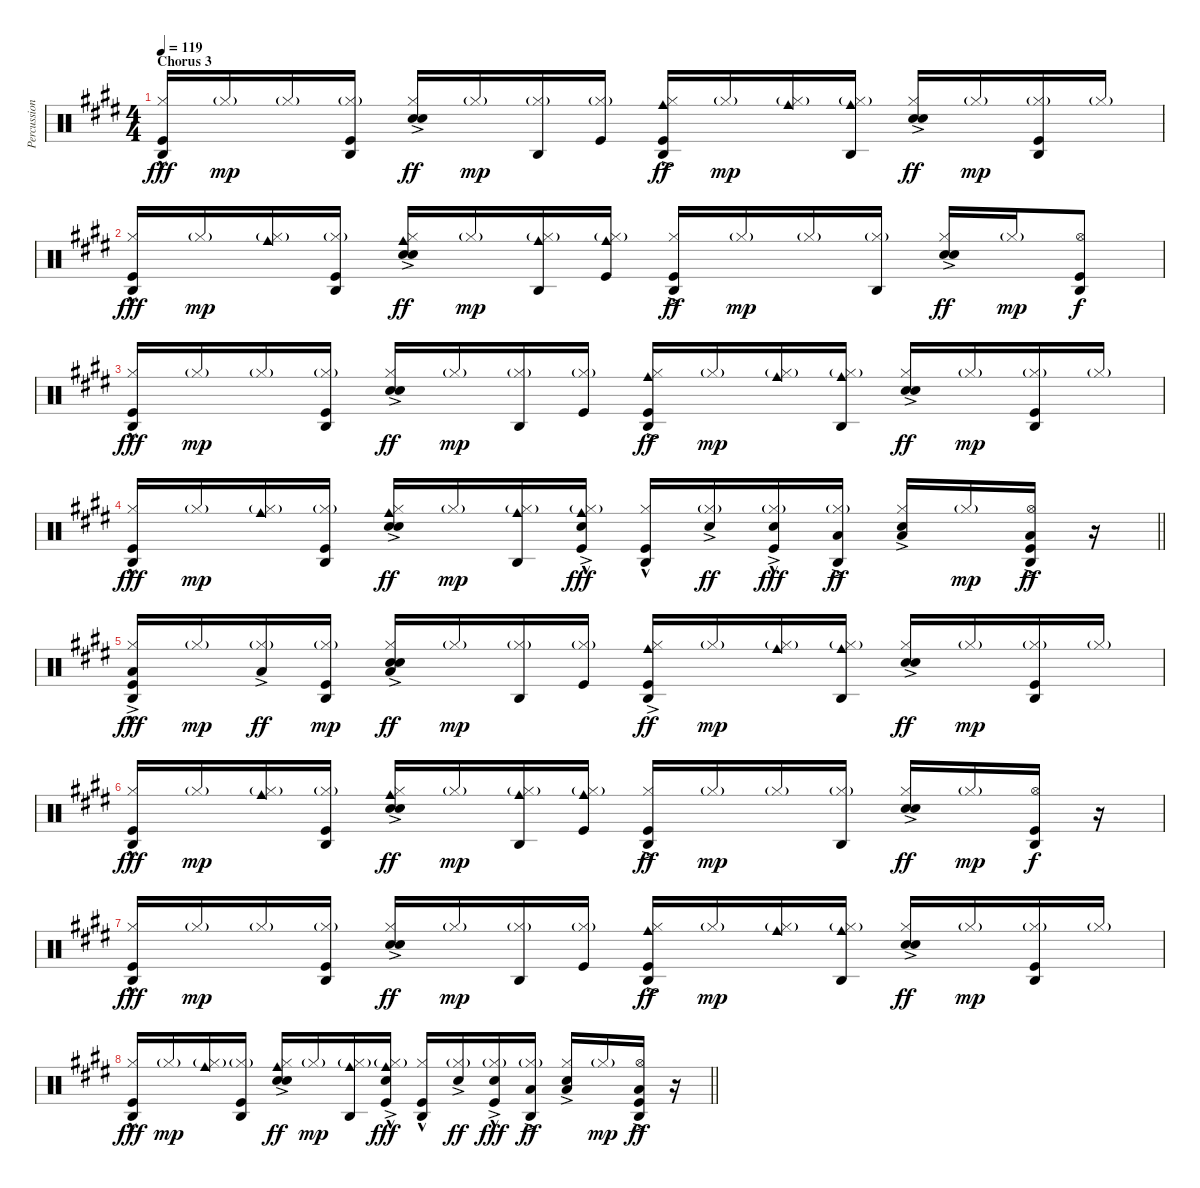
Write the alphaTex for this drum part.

\track ("Percussion" "Percussion") {instrument percussion}
\staff {score}
\articulation defaults
\ts (4 4)
\section ("" "Chorus 3")
\tempo 119
\clef neutral
\ks e
("Agogo high (hit)" "Hi-Hat (closed)" "Kick (hit)"{hac}).16{dy fff} "Hi-Hat (closed)"{g}.16{dy mp} "Hi-Hat (closed)"{g}.16 ("Agogo high (hit)" "Hi-Hat (closed)"{g} "Kick (hit)").16 ("Hi-Hat (closed)" "Hand Clap (hit)"{ac} "Snare (hit) 2"{ac}).16{dy ff} "Hi-Hat (closed)"{g}.16{dy mp} ("Agogo high (hit)" "Hi-Hat (closed)"{g}).16 ("Hi-Hat (closed)"{g} "Kick (hit)").16 ("Agogo high (hit)" "Cowbell medium (hit)" "Hi-Hat (closed)" "Kick (hit)"{ac}).16{dy ff} "Hi-Hat (closed)"{g}.16{dy mp} ("Cowbell medium (hit)" "Hi-Hat (closed)"{g}).16 ("Agogo high (hit)" "Cowbell medium (hit)" "Hi-Hat (closed)"{g}).16 ("Hi-Hat (closed)" "Hand Clap (hit)"{ac} "Snare (hit) 2"{ac}).16{dy ff} "Hi-Hat (closed)"{g}.16{dy mp} ("Agogo high (hit)" "Hi-Hat (closed)"{g} "Kick (hit)").16 "Hi-Hat (closed)"{g}.16 |
("Agogo high (hit)" "Hi-Hat (closed)" "Kick (hit)"{hac}).16{dy fff} "Hi-Hat (closed)"{g}.16{dy mp} ("Cowbell medium (hit)" "Hi-Hat (closed)"{g}).16 ("Agogo high (hit)" "Hi-Hat (closed)"{g} "Kick (hit)").16 ("Cowbell medium (hit)" "Hi-Hat (closed)" "Hand Clap (hit)"{ac} "Snare (hit) 2"{ac}).16{dy ff} "Hi-Hat (closed)"{g}.16{dy mp} ("Agogo high (hit)" "Cowbell medium (hit)" "Hi-Hat (closed)"{g}).16 ("Cowbell medium (hit)" "Hi-Hat (closed)"{g} "Kick (hit)").16 ("Agogo high (hit)" "Hi-Hat (closed)" "Kick (hit)"{ac}).16{dy ff} "Hi-Hat (closed)"{g}.16{dy mp} "Hi-Hat (closed)"{g}.16 ("Agogo high (hit)" "Hi-Hat (closed)"{g}).16 ("Hi-Hat (closed)" "Hand Clap (hit)"{ac} "Snare (hit) 2"{ac}).16{dy ff} "Hi-Hat (closed)"{g}.16{dy mp} ("Agogo high (hit)" "Hi-Hat (open)" "Kick (hit)").8{dy f} |
("Agogo high (hit)" "Hi-Hat (closed)" "Kick (hit)"{hac}).16{dy fff} "Hi-Hat (closed)"{g}.16{dy mp} "Hi-Hat (closed)"{g}.16 ("Agogo high (hit)" "Hi-Hat (closed)"{g} "Kick (hit)").16 ("Hi-Hat (closed)" "Hand Clap (hit)"{ac} "Snare (hit) 2"{ac}).16{dy ff} "Hi-Hat (closed)"{g}.16{dy mp} ("Agogo high (hit)" "Hi-Hat (closed)"{g}).16 ("Hi-Hat (closed)"{g} "Kick (hit)").16 ("Agogo high (hit)" "Cowbell medium (hit)" "Hi-Hat (closed)" "Kick (hit)"{ac}).16{dy ff} "Hi-Hat (closed)"{g}.16{dy mp} ("Cowbell medium (hit)" "Hi-Hat (closed)"{g}).16 ("Agogo high (hit)" "Cowbell medium (hit)" "Hi-Hat (closed)"{g}).16 ("Hi-Hat (closed)" "Hand Clap (hit)"{ac} "Snare (hit) 2"{ac}).16{dy ff} "Hi-Hat (closed)"{g}.16{dy mp} ("Agogo high (hit)" "Hi-Hat (closed)"{g} "Kick (hit)").16 "Hi-Hat (closed)"{g}.16 |
\barLineRight lightlight
("Agogo high (hit)" "Hi-Hat (closed)" "Kick (hit)"{hac}).16{dy fff} "Hi-Hat (closed)"{g}.16{dy mp} ("Cowbell medium (hit)" "Hi-Hat (closed)"{g}).16 ("Agogo high (hit)" "Hi-Hat (closed)"{g} "Kick (hit)").16 ("Cowbell medium (hit)" "Hi-Hat (closed)" "Hand Clap (hit)"{ac} "Snare (hit) 2"{ac}).16{dy ff} "Hi-Hat (closed)"{g}.16{dy mp} ("Agogo high (hit)" "Cowbell medium (hit)" "Hi-Hat (closed)"{g}).16 ("Cowbell medium (hit)" "Hi-Hat (closed)"{g} "Hand Clap (hit)"{ac} "Kick (hit)"{hac}).16{dy fff} ("Agogo high (hit)" "Hi-Hat (closed)" "Kick (hit)"{hac}).16 ("Hi-Hat (closed)"{g} "Hand Clap (hit)"{ac}).16{dy ff} ("Hi-Hat (closed)"{g} "Hand Clap (hit)"{ac} "Kick (hit)"{hac}).16{dy fff} ("Agogo high (hit)" "Hi-Hat (closed)"{g} "Low Tom (hit)"{ac}).16{dy ff} ("Hi-Hat (closed)" "Hand Clap (hit)"{ac} "Low Tom (hit)"{ac}).16 "Hi-Hat (closed)"{g}.16{dy mp} ("Agogo high (hit)" "Hi-Hat (open)" "Low Tom (hit)"{ac} "Kick (hit)").16{dy ff} r.16 |
("Agogo high (hit)" "Hi-Hat (closed)" "Low Tom (hit)"{ac} "Kick (hit)"{hac}).16{dy fff} "Hi-Hat (closed)"{g}.16{dy mp} ("Hi-Hat (closed)"{g} "Low Tom (hit)"{ac}).16{dy ff} ("Agogo high (hit)" "Hi-Hat (closed)"{g} "Kick (hit)").16{dy mp} ("Hi-Hat (closed)" "Hand Clap (hit)"{ac} "Snare (hit) 2"{ac} "Low Tom (hit)"{ac}).16{dy ff} "Hi-Hat (closed)"{g}.16{dy mp} ("Agogo high (hit)" "Hi-Hat (closed)"{g}).16 ("Hi-Hat (closed)"{g} "Kick (hit)").16 ("Agogo high (hit)" "Cowbell medium (hit)" "Hi-Hat (closed)" "Kick (hit)"{ac}).16{dy ff} "Hi-Hat (closed)"{g}.16{dy mp} ("Cowbell medium (hit)" "Hi-Hat (closed)"{g}).16 ("Agogo high (hit)" "Cowbell medium (hit)" "Hi-Hat (closed)"{g}).16 ("Hi-Hat (closed)" "Hand Clap (hit)"{ac} "Snare (hit) 2"{ac}).16{dy ff} "Hi-Hat (closed)"{g}.16{dy mp} ("Agogo high (hit)" "Hi-Hat (closed)"{g} "Kick (hit)").16 "Hi-Hat (closed)"{g}.16 |
("Agogo high (hit)" "Hi-Hat (closed)" "Kick (hit)"{hac}).16{dy fff} "Hi-Hat (closed)"{g}.16{dy mp} ("Cowbell medium (hit)" "Hi-Hat (closed)"{g}).16 ("Agogo high (hit)" "Hi-Hat (closed)"{g} "Kick (hit)").16 ("Cowbell medium (hit)" "Hi-Hat (closed)" "Hand Clap (hit)"{ac} "Snare (hit) 2"{ac}).16{dy ff} "Hi-Hat (closed)"{g}.16{dy mp} ("Agogo high (hit)" "Cowbell medium (hit)" "Hi-Hat (closed)"{g}).16 ("Cowbell medium (hit)" "Hi-Hat (closed)"{g} "Kick (hit)").16 ("Agogo high (hit)" "Hi-Hat (closed)" "Kick (hit)"{ac}).16{dy ff} "Hi-Hat (closed)"{g}.16{dy mp} "Hi-Hat (closed)"{g}.16 ("Agogo high (hit)" "Hi-Hat (closed)"{g}).16 ("Hi-Hat (closed)" "Hand Clap (hit)"{ac} "Snare (hit) 2"{ac}).16{dy ff} "Hi-Hat (closed)"{g}.16{dy mp} ("Agogo high (hit)" "Hi-Hat (open)" "Kick (hit)").16{dy f} r.16 |
("Agogo high (hit)" "Hi-Hat (closed)" "Kick (hit)"{hac}).16{dy fff} "Hi-Hat (closed)"{g}.16{dy mp} "Hi-Hat (closed)"{g}.16 ("Agogo high (hit)" "Hi-Hat (closed)"{g} "Kick (hit)").16 ("Hi-Hat (closed)" "Hand Clap (hit)"{ac} "Snare (hit) 2"{ac}).16{dy ff} "Hi-Hat (closed)"{g}.16{dy mp} ("Agogo high (hit)" "Hi-Hat (closed)"{g}).16 ("Hi-Hat (closed)"{g} "Kick (hit)").16 ("Agogo high (hit)" "Cowbell medium (hit)" "Hi-Hat (closed)" "Kick (hit)"{ac}).16{dy ff} "Hi-Hat (closed)"{g}.16{dy mp} ("Cowbell medium (hit)" "Hi-Hat (closed)"{g}).16 ("Agogo high (hit)" "Cowbell medium (hit)" "Hi-Hat (closed)"{g}).16 ("Hi-Hat (closed)" "Hand Clap (hit)"{ac} "Snare (hit) 2"{ac}).16{dy ff} "Hi-Hat (closed)"{g}.16{dy mp} ("Agogo high (hit)" "Hi-Hat (closed)"{g} "Kick (hit)").16 "Hi-Hat (closed)"{g}.16 |
\barLineRight lightlight
("Agogo high (hit)" "Hi-Hat (closed)" "Kick (hit)"{hac}).16{dy fff} "Hi-Hat (closed)"{g}.16{dy mp} ("Cowbell medium (hit)" "Hi-Hat (closed)"{g}).16 ("Agogo high (hit)" "Hi-Hat (closed)"{g} "Kick (hit)").16 ("Cowbell medium (hit)" "Hi-Hat (closed)" "Hand Clap (hit)"{ac} "Snare (hit) 2"{ac}).16{dy ff} "Hi-Hat (closed)"{g}.16{dy mp} ("Agogo high (hit)" "Cowbell medium (hit)" "Hi-Hat (closed)"{g}).16 ("Cowbell medium (hit)" "Hi-Hat (closed)"{g} "Hand Clap (hit)"{ac} "Kick (hit)"{hac}).16{dy fff} ("Agogo high (hit)" "Hi-Hat (closed)" "Kick (hit)"{hac}).16 ("Hi-Hat (closed)"{g} "Hand Clap (hit)"{ac}).16{dy ff} ("Hi-Hat (closed)"{g} "Hand Clap (hit)"{ac} "Kick (hit)"{hac}).16{dy fff} ("Agogo high (hit)" "Hi-Hat (closed)"{g} "Low Tom (hit)"{ac}).16{dy ff} ("Hi-Hat (closed)" "Hand Clap (hit)"{ac} "Low Tom (hit)"{ac}).16 "Hi-Hat (closed)"{g}.16{dy mp} ("Agogo high (hit)" "Hi-Hat (open)" "Low Tom (hit)"{ac} "Kick (hit)").16{dy ff} r.16
